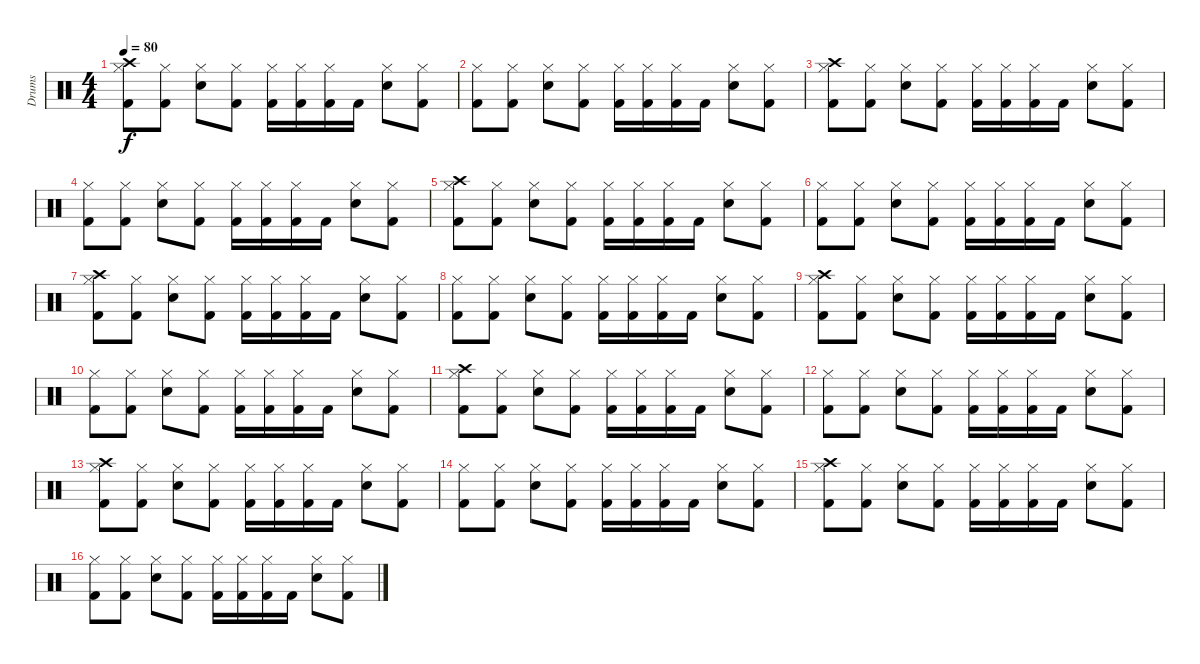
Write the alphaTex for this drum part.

\track ("Drums" "Drums") {instrument percussion}
\staff {score}
\articulation defaults
\ts (4 4)
\tempo 80
\clef neutral
\ks c
("Crash high (hit)" "Hi-Hat (closed)" "Kick (hit) 2").8{dy f} ("Hi-Hat (closed)" "Kick (hit) 2").8 ("Hi-Hat (closed)" "Snare (hit) 2").8 ("Hi-Hat (closed)" "Kick (hit) 2").8 ("Hi-Hat (closed)" "Kick (hit) 2").16 ("Hi-Hat (closed)" "Kick (hit) 2").16 ("Hi-Hat (closed)" "Kick (hit) 2").16 "Kick (hit) 2".16 ("Hi-Hat (closed)" "Snare (hit) 2").8 ("Hi-Hat (closed)" "Kick (hit) 2").8 |
("Hi-Hat (closed)" "Kick (hit) 2").8 ("Hi-Hat (closed)" "Kick (hit) 2").8 ("Hi-Hat (closed)" "Snare (hit) 2").8 ("Hi-Hat (closed)" "Kick (hit) 2").8 ("Hi-Hat (closed)" "Kick (hit) 2").16 ("Hi-Hat (closed)" "Kick (hit) 2").16 ("Hi-Hat (closed)" "Kick (hit) 2").16 "Kick (hit) 2".16 ("Hi-Hat (closed)" "Snare (hit) 2").8 ("Hi-Hat (closed)" "Kick (hit) 2").8 |
("Crash high (hit)" "Hi-Hat (closed)" "Kick (hit) 2").8 ("Hi-Hat (closed)" "Kick (hit) 2").8 ("Hi-Hat (closed)" "Snare (hit) 2").8 ("Hi-Hat (closed)" "Kick (hit) 2").8 ("Hi-Hat (closed)" "Kick (hit) 2").16 ("Hi-Hat (closed)" "Kick (hit) 2").16 ("Hi-Hat (closed)" "Kick (hit) 2").16 "Kick (hit) 2".16 ("Hi-Hat (closed)" "Snare (hit) 2").8 ("Hi-Hat (closed)" "Kick (hit) 2").8 |
("Hi-Hat (closed)" "Kick (hit) 2").8 ("Hi-Hat (closed)" "Kick (hit) 2").8 ("Hi-Hat (closed)" "Snare (hit) 2").8 ("Hi-Hat (closed)" "Kick (hit) 2").8 ("Hi-Hat (closed)" "Kick (hit) 2").16 ("Hi-Hat (closed)" "Kick (hit) 2").16 ("Hi-Hat (closed)" "Kick (hit) 2").16 "Kick (hit) 2".16 ("Hi-Hat (closed)" "Snare (hit) 2").8 ("Hi-Hat (closed)" "Kick (hit) 2").8 |
("Crash high (hit)" "Hi-Hat (closed)" "Kick (hit) 2").8 ("Hi-Hat (closed)" "Kick (hit) 2").8 ("Hi-Hat (closed)" "Snare (hit) 2").8 ("Hi-Hat (closed)" "Kick (hit) 2").8 ("Hi-Hat (closed)" "Kick (hit) 2").16 ("Hi-Hat (closed)" "Kick (hit) 2").16 ("Hi-Hat (closed)" "Kick (hit) 2").16 "Kick (hit) 2".16 ("Hi-Hat (closed)" "Snare (hit) 2").8 ("Hi-Hat (closed)" "Kick (hit) 2").8 |
("Hi-Hat (closed)" "Kick (hit) 2").8 ("Hi-Hat (closed)" "Kick (hit) 2").8 ("Hi-Hat (closed)" "Snare (hit) 2").8 ("Hi-Hat (closed)" "Kick (hit) 2").8 ("Hi-Hat (closed)" "Kick (hit) 2").16 ("Hi-Hat (closed)" "Kick (hit) 2").16 ("Hi-Hat (closed)" "Kick (hit) 2").16 "Kick (hit) 2".16 ("Hi-Hat (closed)" "Snare (hit) 2").8 ("Hi-Hat (closed)" "Kick (hit) 2").8 |
("Crash high (hit)" "Hi-Hat (closed)" "Kick (hit) 2").8 ("Hi-Hat (closed)" "Kick (hit) 2").8 ("Hi-Hat (closed)" "Snare (hit) 2").8 ("Hi-Hat (closed)" "Kick (hit) 2").8 ("Hi-Hat (closed)" "Kick (hit) 2").16 ("Hi-Hat (closed)" "Kick (hit) 2").16 ("Hi-Hat (closed)" "Kick (hit) 2").16 "Kick (hit) 2".16 ("Hi-Hat (closed)" "Snare (hit) 2").8 ("Hi-Hat (closed)" "Kick (hit) 2").8 |
("Hi-Hat (closed)" "Kick (hit) 2").8 ("Hi-Hat (closed)" "Kick (hit) 2").8 ("Hi-Hat (closed)" "Snare (hit) 2").8 ("Hi-Hat (closed)" "Kick (hit) 2").8 ("Hi-Hat (closed)" "Kick (hit) 2").16 ("Hi-Hat (closed)" "Kick (hit) 2").16 ("Hi-Hat (closed)" "Kick (hit) 2").16 "Kick (hit) 2".16 ("Hi-Hat (closed)" "Snare (hit) 2").8 ("Hi-Hat (closed)" "Kick (hit) 2").8 |
("Crash high (hit)" "Hi-Hat (closed)" "Kick (hit) 2").8 ("Hi-Hat (closed)" "Kick (hit) 2").8 ("Hi-Hat (closed)" "Snare (hit) 2").8 ("Hi-Hat (closed)" "Kick (hit) 2").8 ("Hi-Hat (closed)" "Kick (hit) 2").16 ("Hi-Hat (closed)" "Kick (hit) 2").16 ("Hi-Hat (closed)" "Kick (hit) 2").16 "Kick (hit) 2".16 ("Hi-Hat (closed)" "Snare (hit) 2").8 ("Hi-Hat (closed)" "Kick (hit) 2").8 |
("Hi-Hat (closed)" "Kick (hit) 2").8 ("Hi-Hat (closed)" "Kick (hit) 2").8 ("Hi-Hat (closed)" "Snare (hit) 2").8 ("Hi-Hat (closed)" "Kick (hit) 2").8 ("Hi-Hat (closed)" "Kick (hit) 2").16 ("Hi-Hat (closed)" "Kick (hit) 2").16 ("Hi-Hat (closed)" "Kick (hit) 2").16 "Kick (hit) 2".16 ("Hi-Hat (closed)" "Snare (hit) 2").8 ("Hi-Hat (closed)" "Kick (hit) 2").8 |
("Crash high (hit)" "Hi-Hat (closed)" "Kick (hit) 2").8 ("Hi-Hat (closed)" "Kick (hit) 2").8 ("Hi-Hat (closed)" "Snare (hit) 2").8 ("Hi-Hat (closed)" "Kick (hit) 2").8 ("Hi-Hat (closed)" "Kick (hit) 2").16 ("Hi-Hat (closed)" "Kick (hit) 2").16 ("Hi-Hat (closed)" "Kick (hit) 2").16 "Kick (hit) 2".16 ("Hi-Hat (closed)" "Snare (hit) 2").8 ("Hi-Hat (closed)" "Kick (hit) 2").8 |
("Hi-Hat (closed)" "Kick (hit) 2").8 ("Hi-Hat (closed)" "Kick (hit) 2").8 ("Hi-Hat (closed)" "Snare (hit) 2").8 ("Hi-Hat (closed)" "Kick (hit) 2").8 ("Hi-Hat (closed)" "Kick (hit) 2").16 ("Hi-Hat (closed)" "Kick (hit) 2").16 ("Hi-Hat (closed)" "Kick (hit) 2").16 "Kick (hit) 2".16 ("Hi-Hat (closed)" "Snare (hit) 2").8 ("Hi-Hat (closed)" "Kick (hit) 2").8 |
("Crash high (hit)" "Hi-Hat (closed)" "Kick (hit) 2").8 ("Hi-Hat (closed)" "Kick (hit) 2").8 ("Hi-Hat (closed)" "Snare (hit) 2").8 ("Hi-Hat (closed)" "Kick (hit) 2").8 ("Hi-Hat (closed)" "Kick (hit) 2").16 ("Hi-Hat (closed)" "Kick (hit) 2").16 ("Hi-Hat (closed)" "Kick (hit) 2").16 "Kick (hit) 2".16 ("Hi-Hat (closed)" "Snare (hit) 2").8 ("Hi-Hat (closed)" "Kick (hit) 2").8 |
("Hi-Hat (closed)" "Kick (hit) 2").8 ("Hi-Hat (closed)" "Kick (hit) 2").8 ("Hi-Hat (closed)" "Snare (hit) 2").8 ("Hi-Hat (closed)" "Kick (hit) 2").8 ("Hi-Hat (closed)" "Kick (hit) 2").16 ("Hi-Hat (closed)" "Kick (hit) 2").16 ("Hi-Hat (closed)" "Kick (hit) 2").16 "Kick (hit) 2".16 ("Hi-Hat (closed)" "Snare (hit) 2").8 ("Hi-Hat (closed)" "Kick (hit) 2").8 |
("Crash high (hit)" "Hi-Hat (closed)" "Kick (hit) 2").8 ("Hi-Hat (closed)" "Kick (hit) 2").8 ("Hi-Hat (closed)" "Snare (hit) 2").8 ("Hi-Hat (closed)" "Kick (hit) 2").8 ("Hi-Hat (closed)" "Kick (hit) 2").16 ("Hi-Hat (closed)" "Kick (hit) 2").16 ("Hi-Hat (closed)" "Kick (hit) 2").16 "Kick (hit) 2".16 ("Hi-Hat (closed)" "Snare (hit) 2").8 ("Hi-Hat (closed)" "Kick (hit) 2").8 |
("Hi-Hat (closed)" "Kick (hit) 2").8 ("Hi-Hat (closed)" "Kick (hit) 2").8 ("Hi-Hat (closed)" "Snare (hit) 2").8 ("Hi-Hat (closed)" "Kick (hit) 2").8 ("Hi-Hat (closed)" "Kick (hit) 2").16 ("Hi-Hat (closed)" "Kick (hit) 2").16 ("Hi-Hat (closed)" "Kick (hit) 2").16 "Kick (hit) 2".16 ("Hi-Hat (closed)" "Snare (hit) 2").8 ("Hi-Hat (closed)" "Kick (hit) 2").8
